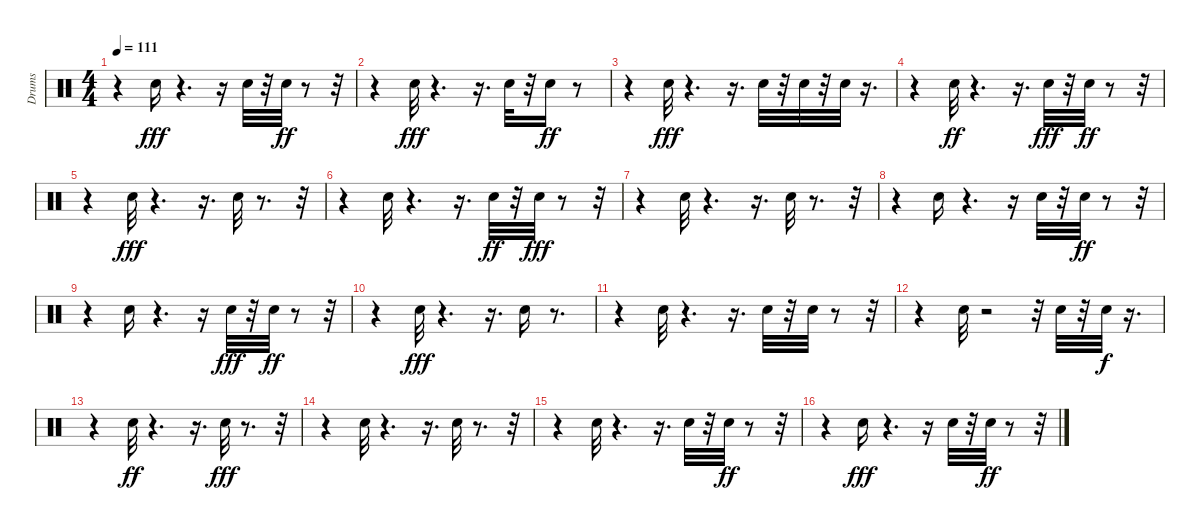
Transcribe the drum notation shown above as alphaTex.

\track ("Drums" "Drums") {instrument percussion}
\staff {score}
\articulation defaults
\ts (4 4)
\tempo 111
\clef neutral
\ks c
r.4{dy ff} "Electric Snare (hit)".16{dy fff} r.4{d} r.16 "Electric Snare (hit)".32 r.32 "Electric Snare (hit)".32{dy ff} r.8 r.32 |
r.4 "Electric Snare (hit)".32{dy fff} r.4{d} r.16{d} "Electric Snare (hit)".32 r.32 "Electric Snare (hit)".16{dy ff} r.8 |
r.4 "Electric Snare (hit)".32{dy fff} r.4{d} r.16{d} "Electric Snare (hit)".32 r.32 "Electric Snare (hit)".32 r.32 "Electric Snare (hit)".32 r.16{d} |
r.4 "Electric Snare (hit)".32{dy ff} r.4{d} r.16{d} "Electric Snare (hit)".32{dy fff} r.32 "Electric Snare (hit)".32{dy ff} r.8 r.32 |
r.4 "Electric Snare (hit)".32{dy fff} r.4{d} r.16{d} "Electric Snare (hit)".32 r.8{d} r.32 |
r.4 "Electric Snare (hit)".32 r.4{d} r.16{d} "Electric Snare (hit)".32{dy ff} r.32 "Electric Snare (hit)".32{dy fff} r.8 r.32 |
r.4 "Electric Snare (hit)".32 r.4{d} r.16{d} "Electric Snare (hit)".32 r.8{d} r.32 |
r.4 "Electric Snare (hit)".16 r.4{d} r.16 "Electric Snare (hit)".32 r.32 "Electric Snare (hit)".32{dy ff} r.8 r.32 |
r.4 "Electric Snare (hit)".16 r.4{d} r.16 "Electric Snare (hit)".32{dy fff} r.32 "Electric Snare (hit)".32{dy ff} r.8 r.32 |
r.4 "Electric Snare (hit)".32{dy fff} r.4{d} r.16{d} "Electric Snare (hit)".16 r.8{d} |
r.4 "Electric Snare (hit)".32 r.4{d} r.16{d} "Electric Snare (hit)".32 r.32 "Electric Snare (hit)".32 r.8 r.32 |
r.4 "Electric Snare (hit)".32 r.2 r.32 "Electric Snare (hit)".32 r.32 "Electric Snare (hit)".32{dy f} r.16{d} |
r.4 "Electric Snare (hit)".32{dy ff} r.4{d} r.16{d} "Electric Snare (hit)".32{dy fff} r.8{d} r.32 |
r.4 "Electric Snare (hit)".32 r.4{d} r.16{d} "Electric Snare (hit)".32 r.8{d} r.32 |
r.4 "Electric Snare (hit)".32 r.4{d} r.16{d} "Electric Snare (hit)".32 r.32 "Electric Snare (hit)".32{dy ff} r.8 r.32 |
r.4 "Electric Snare (hit)".16{dy fff} r.4{d} r.16 "Electric Snare (hit)".32 r.32 "Electric Snare (hit)".32{dy ff} r.8 r.32
